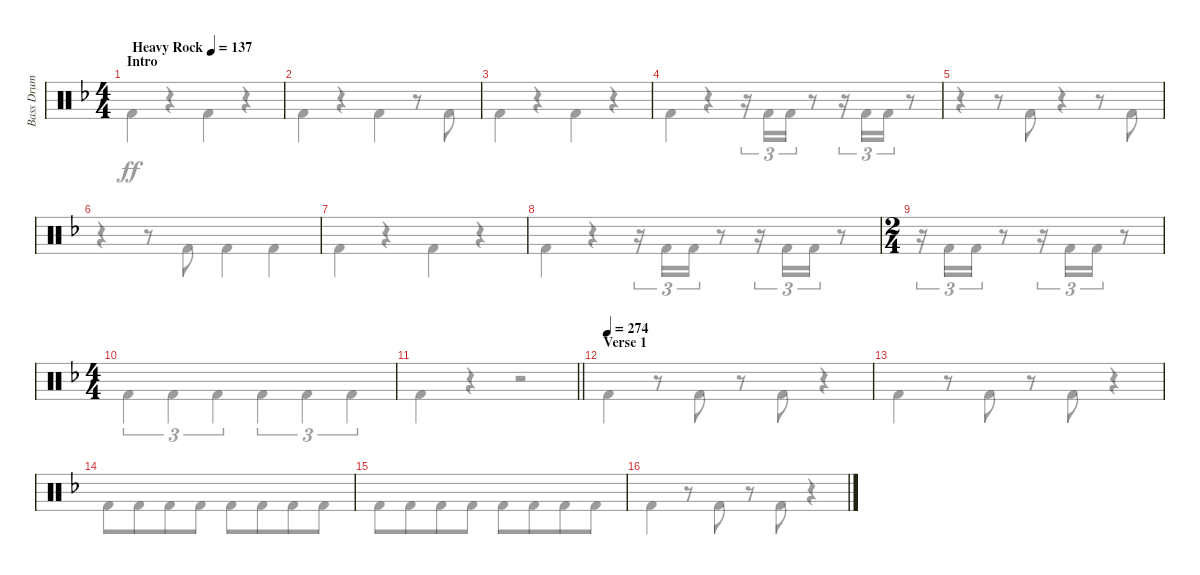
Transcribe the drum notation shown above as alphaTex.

\track ("Bass Drum" "Bass Drum") {instrument percussion}
\staff {score}
\articulation defaults
\voice
\ts (4 4)
\section ("" "Intro")
\tempo (137 "Heavy Rock")
\clef neutral
\ks dminor
|
|
|
|
|
|
|
|
\ts (2 4)
|
\ts (4 4)
|
\barLineRight lightlight
|
\section ("" "Verse 1")
\tempo 274
|
|
|
|
\voice
\clef neutral
\ks dminor "Kick (hit) 2".4{dy ff}
r.4 "Kick (hit) 2".4 r.4 |
"Kick (hit) 2".4 r.4 "Kick (hit) 2".4 r.8 "Kick (hit) 2".8 |
"Kick (hit) 2".4 r.4 "Kick (hit) 2".4 r.4 |
"Kick (hit) 2".4 r.4 r.16{tu (3 2)} "Kick (hit) 2".16{tu (3 2)} "Kick (hit) 2".16{tu (3 2)} r.8 r.16{tu (3 2)} "Kick (hit) 2".16{tu (3 2)} "Kick (hit) 2".16{tu (3 2)} r.8 |
r.4 r.8 "Kick (hit) 2".8 r.4 r.8 "Kick (hit) 2".8 |
r.4 r.8 "Kick (hit) 2".8 "Kick (hit) 2".4 "Kick (hit) 2".4 |
"Kick (hit) 2".4 r.4 "Kick (hit) 2".4 r.4 |
"Kick (hit) 2".4 r.4 r.16{tu (3 2)} "Kick (hit) 2".16{tu (3 2)} "Kick (hit) 2".16{tu (3 2)} r.8 r.16{tu (3 2)} "Kick (hit) 2".16{tu (3 2)} "Kick (hit) 2".16{tu (3 2)} r.8 |
r.16{tu (3 2)} "Kick (hit) 2".16{tu (3 2)} "Kick (hit) 2".16{tu (3 2)} r.8 r.16{tu (3 2)} "Kick (hit) 2".16{tu (3 2)} "Kick (hit) 2".16{tu (3 2)} r.8 |
"Kick (hit) 2".4{tu (3 2)} "Kick (hit) 2".4{tu (3 2)} "Kick (hit) 2".4{tu (3 2)} "Kick (hit) 2".4{tu (3 2)} "Kick (hit) 2".4{tu (3 2)} "Kick (hit) 2".4{tu (3 2)} |
\barLineRight lightlight "Kick (hit) 2".4
r.4 r.2 |
"Kick (hit) 2".4 r.8 "Kick (hit) 2".8 r.8 "Kick (hit) 2".8 r.4 |
"Kick (hit) 2".4 r.8 "Kick (hit) 2".8 r.8 "Kick (hit) 2".8 r.4 |
"Kick (hit) 2".8 "Kick (hit) 2".8{beam merge} "Kick (hit) 2".8 "Kick (hit) 2".8 "Kick (hit) 2".8 "Kick (hit) 2".8{beam merge} "Kick (hit) 2".8 "Kick (hit) 2".8 |
"Kick (hit) 2".8 "Kick (hit) 2".8{beam merge} "Kick (hit) 2".8 "Kick (hit) 2".8 "Kick (hit) 2".8 "Kick (hit) 2".8{beam merge} "Kick (hit) 2".8 "Kick (hit) 2".8 |
"Kick (hit) 2".4 r.8 "Kick (hit) 2".8 r.8 "Kick (hit) 2".8 r.4
